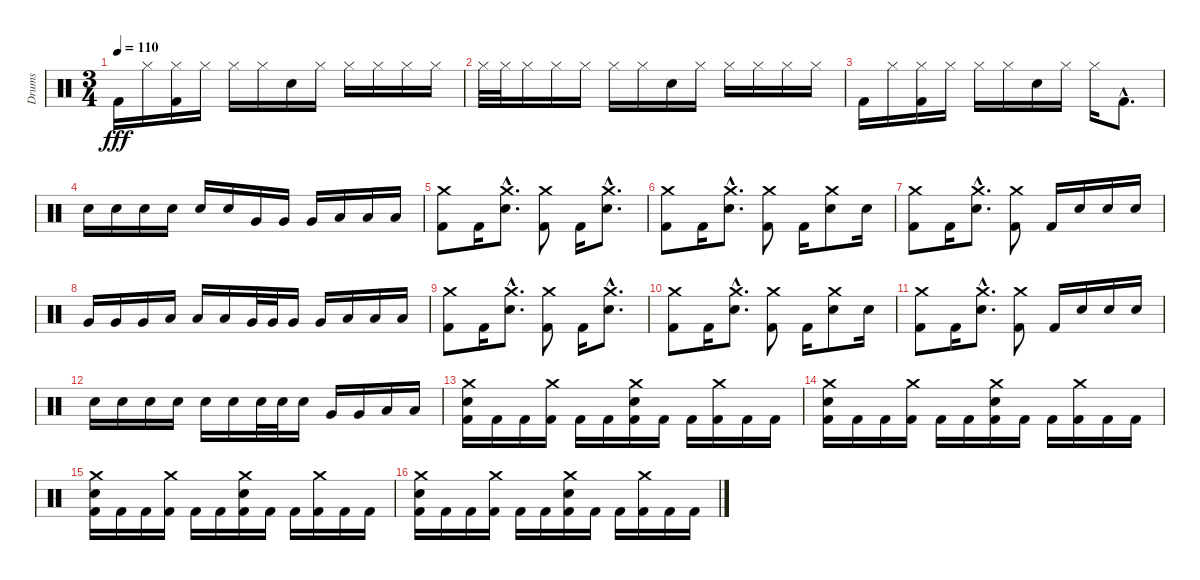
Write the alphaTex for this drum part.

\track ("Drums" "Drums") {instrument percussion}
\staff {score}
\articulation defaults
\ts (3 4)
\tempo 110
\clef neutral
\ks c "Kick (hit) 2".16{dy fff} "Hi-Hat (closed)".16
("Hi-Hat (closed)" "Kick (hit) 2").16 "Hi-Hat (closed)".16 "Hi-Hat (closed)".16 "Hi-Hat (closed)".16 "Electric Snare (hit)".16 "Hi-Hat (closed)".16 "Hi-Hat (closed)".16 "Hi-Hat (closed)".16 "Hi-Hat (closed)".16 "Hi-Hat (closed)".16 |
"Hi-Hat (closed)".32 "Hi-Hat (closed)".32 "Hi-Hat (closed)".16 "Hi-Hat (closed)".16 "Hi-Hat (closed)".16 "Hi-Hat (closed)".16 "Hi-Hat (closed)".16 "Electric Snare (hit)".16 "Hi-Hat (closed)".16 "Hi-Hat (closed)".16 "Hi-Hat (closed)".16 "Hi-Hat (closed)".16 "Hi-Hat (closed)".16 |
"Kick (hit) 2".16 "Hi-Hat (closed)".16 ("Hi-Hat (closed)" "Kick (hit) 2").16 "Hi-Hat (closed)".16 "Hi-Hat (closed)".16 "Hi-Hat (closed)".16 "Electric Snare (hit)".16 "Hi-Hat (closed)".16 "Hi-Hat (closed)".16 "Kick (hit) 2"{hac}.8{d} |
"Electric Snare (hit)".16 "Electric Snare (hit)".16 "Electric Snare (hit)".16 "Electric Snare (hit)".16 "Electric Snare (hit)".16 "Electric Snare (hit)".16 "Very Low Tom (hit)".16 "Very Low Tom (hit)".16 "Very Low Tom (hit)".16 "Low Tom (hit)".16 "Low Tom (hit)".16 "Low Tom (hit)".16 |
("Crash medium (hit)" "Kick (hit) 2").8 "Kick (hit) 2".16 ("Crash medium (hit)"{hac} "Electric Snare (hit)"{hac}).8{d} ("Crash medium (hit)" "Kick (hit) 2").8 "Kick (hit) 2".16 ("Crash medium (hit)"{hac} "Electric Snare (hit)"{hac}).8{d} |
("Crash medium (hit)" "Kick (hit) 2").8 "Kick (hit) 2".16 ("Crash medium (hit)"{hac} "Electric Snare (hit)"{hac}).8{d} ("Crash medium (hit)" "Kick (hit) 2").8 "Kick (hit) 2".16 ("Crash medium (hit)" "Electric Snare (hit)").8 "Electric Snare (hit)".16 |
("Crash medium (hit)" "Kick (hit) 2").8 "Kick (hit) 2".16 ("Crash medium (hit)"{hac} "Electric Snare (hit)"{hac}).8{d} ("Crash medium (hit)" "Kick (hit) 2").8 "Kick (hit) 2".16 "Electric Snare (hit)".16 "Electric Snare (hit)".16 "Electric Snare (hit)".16 |
"Very Low Tom (hit)".16 "Very Low Tom (hit)".16 "Very Low Tom (hit)".16 "Low Tom (hit)".16 "Low Tom (hit)".16 "Low Tom (hit)".16 "Very Low Tom (hit)".32 "Very Low Tom (hit)".32 "Very Low Tom (hit)".16 "Very Low Tom (hit)".16 "Low Tom (hit)".16 "Low Tom (hit)".16 "Low Tom (hit)".16 |
("Crash medium (hit)" "Kick (hit) 2").8 "Kick (hit) 2".16 ("Crash medium (hit)"{hac} "Electric Snare (hit)"{hac}).8{d} ("Crash medium (hit)" "Kick (hit) 2").8 "Kick (hit) 2".16 ("Crash medium (hit)"{hac} "Electric Snare (hit)"{hac}).8{d} |
("Crash medium (hit)" "Kick (hit) 2").8 "Kick (hit) 2".16 ("Crash medium (hit)"{hac} "Electric Snare (hit)"{hac}).8{d} ("Crash medium (hit)" "Kick (hit) 2").8 "Kick (hit) 2".16 ("Crash medium (hit)" "Electric Snare (hit)").8 "Electric Snare (hit)".16 |
("Crash medium (hit)" "Kick (hit) 2").8 "Kick (hit) 2".16 ("Crash medium (hit)"{hac} "Electric Snare (hit)"{hac}).8{d} ("Crash medium (hit)" "Kick (hit) 2").8 "Kick (hit) 2".16 "Electric Snare (hit)".16 "Electric Snare (hit)".16 "Electric Snare (hit)".16 |
"Electric Snare (hit)".16 "Electric Snare (hit)".16 "Electric Snare (hit)".16 "Electric Snare (hit)".16 "Electric Snare (hit)".16 "Electric Snare (hit)".16 "Electric Snare (hit)".32 "Electric Snare (hit)".32 "Electric Snare (hit)".16 "Very Low Tom (hit)".16 "Very Low Tom (hit)".16 "Low Tom (hit)".16 "Low Tom (hit)".16 |
("Crash medium (hit)" "Electric Snare (hit)" "Kick (hit) 2").16 "Kick (hit) 2".16 "Kick (hit) 2".16 ("Crash medium (hit)" "Kick (hit) 2").16 "Kick (hit) 2".16 "Kick (hit) 2".16 ("Crash medium (hit)" "Electric Snare (hit)" "Kick (hit) 2").16 "Kick (hit) 2".16 "Kick (hit) 2".16 ("Crash medium (hit)" "Kick (hit) 2").16 "Kick (hit) 2".16 "Kick (hit) 2".16 |
("Crash medium (hit)" "Electric Snare (hit)" "Kick (hit) 2").16 "Kick (hit) 2".16 "Kick (hit) 2".16 ("Crash medium (hit)" "Kick (hit) 2").16 "Kick (hit) 2".16 "Kick (hit) 2".16 ("Crash medium (hit)" "Electric Snare (hit)" "Kick (hit) 2").16 "Kick (hit) 2".16 "Kick (hit) 2".16 ("Crash medium (hit)" "Kick (hit) 2").16 "Kick (hit) 2".16 "Kick (hit) 2".16 |
("Crash medium (hit)" "Electric Snare (hit)" "Kick (hit) 2").16 "Kick (hit) 2".16 "Kick (hit) 2".16 ("Crash medium (hit)" "Kick (hit) 2").16 "Kick (hit) 2".16 "Kick (hit) 2".16 ("Crash medium (hit)" "Electric Snare (hit)" "Kick (hit) 2").16 "Kick (hit) 2".16 "Kick (hit) 2".16 ("Crash medium (hit)" "Kick (hit) 2").16 "Kick (hit) 2".16 "Kick (hit) 2".16 |
("Crash medium (hit)" "Electric Snare (hit)" "Kick (hit) 2").16 "Kick (hit) 2".16 "Kick (hit) 2".16 ("Crash medium (hit)" "Kick (hit) 2").16 "Kick (hit) 2".16 "Kick (hit) 2".16 ("Crash medium (hit)" "Electric Snare (hit)" "Kick (hit) 2").16 "Kick (hit) 2".16 "Kick (hit) 2".16 ("Crash medium (hit)" "Kick (hit) 2").16 "Kick (hit) 2".16 "Kick (hit) 2".16
